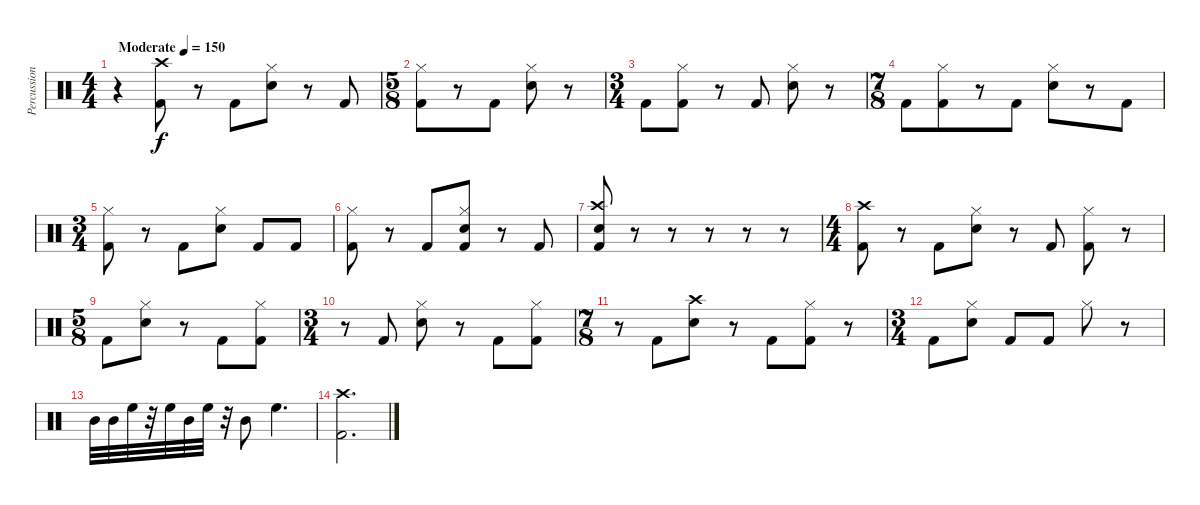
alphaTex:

\track ("Percussioni" "Percussion") {instrument percussion}
\staff {score}
\articulation defaults
\ts (4 4)
\tempo (150 "Moderate")
\clef neutral
\ks c
r.4{dy f} ("Kick (hit) 2" "Crash high (hit)").8 r.8 "Kick (hit) 2".8 ("Hi-Hat (closed)" "Snare (hit) 2").8 r.8 "Kick (hit) 2".8 |
\ts (5 8)
("Kick (hit) 2" "Hi-Hat (closed)").8 r.8 "Kick (hit) 2".8 ("Hi-Hat (closed)" "Snare (hit) 2").8 r.8 |
\ts (3 4)
"Kick (hit) 2".8 ("Kick (hit) 2" "Hi-Hat (closed)").8 r.8 "Kick (hit) 2".8 ("Hi-Hat (closed)" "Snare (hit) 2").8 r.8 |
\ts (7 8)
"Kick (hit) 2".8 ("Kick (hit) 2" "Hi-Hat (closed)").8 r.8 "Kick (hit) 2".8 ("Hi-Hat (closed)" "Snare (hit) 2").8 r.8 "Kick (hit) 2".8 |
\ts (3 4)
("Kick (hit) 2" "Hi-Hat (closed)").8 r.8 "Kick (hit) 2".8 ("Hi-Hat (closed)" "Snare (hit) 2").8 "Kick (hit) 2".8 "Kick (hit) 2".8 |
("Kick (hit) 2" "Hi-Hat (closed)").8 r.8 "Kick (hit) 2".8 ("Kick (hit) 2" "Hi-Hat (closed)" "Snare (hit) 2").8 r.8 "Kick (hit) 2".8 |
("Kick (hit) 2" "Crash high (hit)" "Snare (hit) 2").8 r.8 r.8 r.8 r.8 r.8 |
\ts (4 4)
("Kick (hit) 2" "Crash high (hit)").8 r.8 "Kick (hit) 2".8 ("Hi-Hat (closed)" "Snare (hit) 2").8 r.8 "Kick (hit) 2".8 ("Kick (hit) 2" "Hi-Hat (closed)").8 r.8 |
\ts (5 8)
"Kick (hit) 2".8 ("Hi-Hat (closed)" "Snare (hit) 2").8 r.8 "Kick (hit) 2".8 ("Kick (hit) 2" "Hi-Hat (closed)").8 |
\ts (3 4)
r.8 "Kick (hit) 2".8 ("Hi-Hat (closed)" "Snare (hit) 2").8 r.8 "Kick (hit) 2".8 ("Kick (hit) 2" "Hi-Hat (closed)").8 |
\ts (7 8)
r.8 "Kick (hit) 2".8 ("Crash high (hit)" "Snare (hit) 2").8 r.8 "Kick (hit) 2".8 ("Kick (hit) 2" "Hi-Hat (closed)").8 r.8 |
\ts (3 4)
"Kick (hit) 2".8 ("Hi-Hat (closed)" "Snare (hit) 2").8 "Kick (hit) 2".8 "Kick (hit) 2".8 "Hi-Hat (closed)".8 r.8 |
"Mid Tom (hit)".32 "Mid Tom (hit)".32 "High Floor Tom (hit)".32 r.32 "High Floor Tom (hit)".32 "Mid Tom (hit)".32 "High Floor Tom (hit)".32 r.32 "Mid Tom (hit)".8 "High Floor Tom (hit)".4{d} |
("Kick (hit) 2" "Crash high (hit)").2{d}
